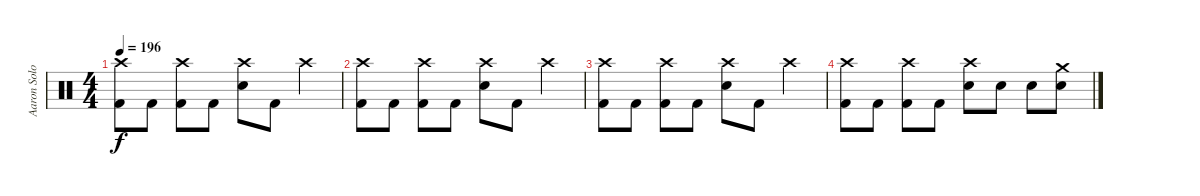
\track ("Aaron Solowoniuk" "Aaron Solo") {instrument percussion}
\staff {score}
\articulation defaults
\ts (4 4)
\tempo 196
\clef neutral
\ks c
("Crash high (hit)" "Kick (hit) 2").8{dy f} "Kick (hit) 2".8 ("Crash high (hit)" "Kick (hit) 2").8 "Kick (hit) 2".8 ("Crash high (hit)" "Electric Snare (hit)").8 "Kick (hit) 2".8 "Crash high (hit)".4 |
("Crash high (hit)" "Kick (hit) 2").8 "Kick (hit) 2".8 ("Crash high (hit)" "Kick (hit) 2").8 "Kick (hit) 2".8 ("Crash high (hit)" "Electric Snare (hit)").8 "Kick (hit) 2".8 "Crash high (hit)".4 |
("Crash high (hit)" "Kick (hit) 2").8 "Kick (hit) 2".8 ("Crash high (hit)" "Kick (hit) 2").8 "Kick (hit) 2".8 ("Crash high (hit)" "Electric Snare (hit)").8 "Kick (hit) 2".8 "Crash high (hit)".4 |
("Crash high (hit)" "Kick (hit) 2").8 "Kick (hit) 2".8 ("Crash high (hit)" "Kick (hit) 2").8 "Kick (hit) 2".8 ("Crash high (hit)" "Electric Snare (hit)").8 "Electric Snare (hit)".8 "Electric Snare (hit)".8 ("Crash medium (hit)" "Electric Snare (hit)").8
